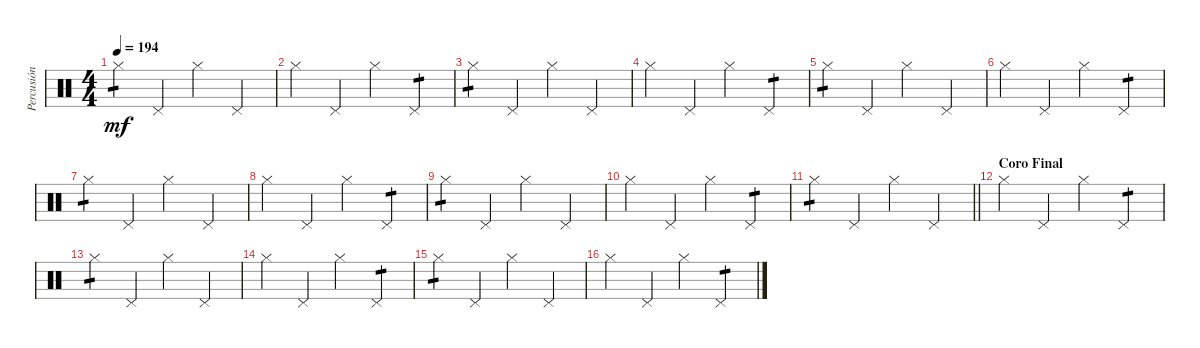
\track ("Percusión" "Percusión") {instrument percussion}
\staff {score}
\articulation defaults
\ts (4 4)
\tempo 194
\clef neutral
\ks c "Hi-Hat (closed)".4{tp 1 dy mf} "Pedal Hi-Hat (hit)".4 "Hi-Hat (closed)".4 "Pedal Hi-Hat (hit)".4
|
"Hi-Hat (closed)".4 "Pedal Hi-Hat (hit)".4 "Hi-Hat (closed)".4 "Pedal Hi-Hat (hit)".4{tp 1} |
"Hi-Hat (closed)".4{tp 1} "Pedal Hi-Hat (hit)".4 "Hi-Hat (closed)".4 "Pedal Hi-Hat (hit)".4 |
"Hi-Hat (closed)".4 "Pedal Hi-Hat (hit)".4 "Hi-Hat (closed)".4 "Pedal Hi-Hat (hit)".4{tp 1} |
"Hi-Hat (closed)".4{tp 1} "Pedal Hi-Hat (hit)".4 "Hi-Hat (closed)".4 "Pedal Hi-Hat (hit)".4 |
"Hi-Hat (closed)".4 "Pedal Hi-Hat (hit)".4 "Hi-Hat (closed)".4 "Pedal Hi-Hat (hit)".4{tp 1} |
"Hi-Hat (closed)".4{tp 1} "Pedal Hi-Hat (hit)".4 "Hi-Hat (closed)".4 "Pedal Hi-Hat (hit)".4 |
"Hi-Hat (closed)".4 "Pedal Hi-Hat (hit)".4 "Hi-Hat (closed)".4 "Pedal Hi-Hat (hit)".4{tp 1} |
"Hi-Hat (closed)".4{tp 1} "Pedal Hi-Hat (hit)".4 "Hi-Hat (closed)".4 "Pedal Hi-Hat (hit)".4 |
"Hi-Hat (closed)".4 "Pedal Hi-Hat (hit)".4 "Hi-Hat (closed)".4 "Pedal Hi-Hat (hit)".4{tp 1} |
\barLineRight lightlight "Hi-Hat (closed)".4{tp 1} "Pedal Hi-Hat (hit)".4 "Hi-Hat (closed)".4 "Pedal Hi-Hat (hit)".4
|
\section ("" "Coro Final")
"Hi-Hat (closed)".4 "Pedal Hi-Hat (hit)".4 "Hi-Hat (closed)".4 "Pedal Hi-Hat (hit)".4{tp 1} |
"Hi-Hat (closed)".4{tp 1} "Pedal Hi-Hat (hit)".4 "Hi-Hat (closed)".4 "Pedal Hi-Hat (hit)".4 |
"Hi-Hat (closed)".4 "Pedal Hi-Hat (hit)".4 "Hi-Hat (closed)".4 "Pedal Hi-Hat (hit)".4{tp 1} |
"Hi-Hat (closed)".4{tp 1} "Pedal Hi-Hat (hit)".4 "Hi-Hat (closed)".4 "Pedal Hi-Hat (hit)".4 |
"Hi-Hat (closed)".4 "Pedal Hi-Hat (hit)".4 "Hi-Hat (closed)".4 "Pedal Hi-Hat (hit)".4{tp 1}
